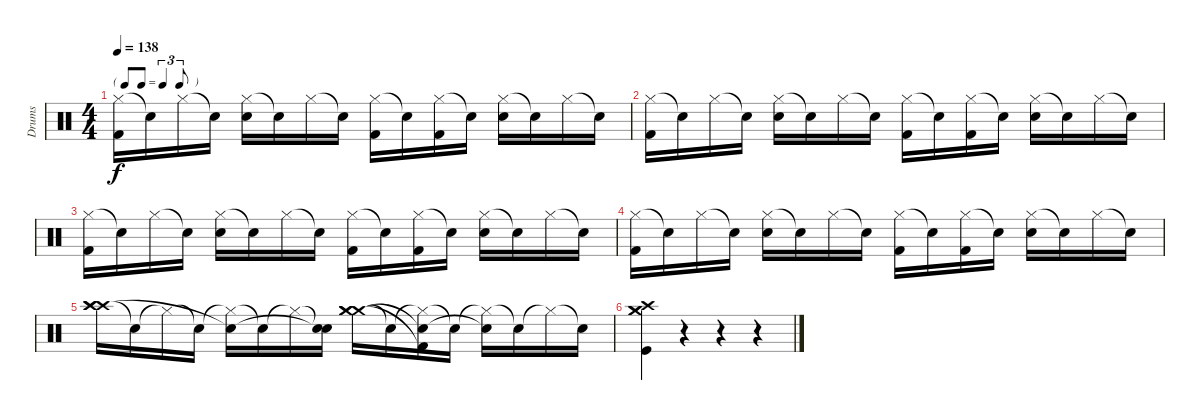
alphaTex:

\track ("Drums" "Drums") {instrument percussion}
\staff {score}
\articulation defaults
\ts (4 4)
\tf triplet8th
\tempo 138
\clef neutral
\ks c
("Hi-Hat (closed)" "Kick (hit) 2").16{dy f} "Snare (hit)"{t}.16 "Hi-Hat (closed)".16 "Snare (hit)"{t}.16 ("Hi-Hat (closed)" "Snare (hit) 2").16 "Snare (hit)"{t}.16 "Hi-Hat (closed)".16 "Snare (hit)"{t}.16 ("Hi-Hat (closed)" "Kick (hit) 2").16 "Snare (hit)"{t}.16 ("Hi-Hat (closed)" "Kick (hit) 2").16 "Snare (hit)"{t}.16 ("Hi-Hat (closed)" "Snare (hit) 2").16 "Snare (hit)"{t}.16 "Hi-Hat (closed)".16 "Snare (hit)"{t}.16 |
("Hi-Hat (closed)" "Kick (hit) 2").16 "Snare (hit)"{t}.16 "Hi-Hat (closed)".16 "Snare (hit)"{t}.16 ("Hi-Hat (closed)" "Snare (hit) 2").16 "Snare (hit)"{t}.16 "Hi-Hat (closed)".16 "Snare (hit)"{t}.16 ("Hi-Hat (closed)" "Kick (hit) 2").16 "Snare (hit)"{t}.16 ("Hi-Hat (closed)" "Kick (hit) 2").16 "Snare (hit)"{t}.16 ("Hi-Hat (closed)" "Snare (hit) 2").16 "Snare (hit)"{t}.16 "Hi-Hat (closed)".16 "Snare (hit)"{t}.16 |
("Hi-Hat (closed)" "Kick (hit) 2").16 "Snare (hit)"{t}.16 "Hi-Hat (closed)".16 "Snare (hit)"{t}.16 ("Hi-Hat (closed)" "Snare (hit) 2").16 "Snare (hit)"{t}.16 "Hi-Hat (closed)".16 "Snare (hit)"{t}.16 ("Hi-Hat (closed)" "Kick (hit) 2").16 "Snare (hit)"{t}.16 ("Hi-Hat (closed)" "Kick (hit) 2").16 "Snare (hit)"{t}.16 ("Hi-Hat (closed)" "Snare (hit) 2").16 "Snare (hit)"{t}.16 "Hi-Hat (closed)".16 "Snare (hit)"{t}.16 |
("Hi-Hat (closed)" "Kick (hit) 2").16 "Snare (hit)"{t}.16 "Hi-Hat (closed)".16 "Snare (hit)"{t}.16 ("Hi-Hat (closed)" "Snare (hit) 2").16 "Snare (hit)"{t}.16 "Hi-Hat (closed)".16 "Snare (hit)"{t}.16 ("Hi-Hat (closed)" "Kick (hit) 2").16 "Snare (hit)"{t}.16 ("Hi-Hat (closed)" "Kick (hit) 2").16 "Snare (hit)"{t}.16 ("Hi-Hat (closed)" "Snare (hit) 2").16 "Snare (hit)"{t}.16 "Hi-Hat (closed)".16 "Snare (hit)"{t}.16 |
("Crash high (hit)" "Crash high (hit)" "Crash high (hit)").16 "Snare (hit)"{t}.16 "Hi-Hat (closed)"{t}.16 "Snare (hit)"{t}.16 ("Hi-Hat (closed)"{t} "Snare (hit) 2"{t}).16 "Snare (hit)"{t}.16 "Hi-Hat (closed)"{t}.16 ("Snare (hit)"{t} "Snare (hit)"{t}).16 ("Crash medium (hit)" "Crash medium (hit)" "Crash medium (hit)").16 "Snare (hit)"{t}.16 ("Hi-Hat (closed)"{t} "Snare (hit)"{t} "Kick (hit) 2"{t}).16 "Snare (hit)"{t}.16 ("Hi-Hat (closed)"{t} "Snare (hit) 2"{t}).16 "Snare (hit)"{t}.16 "Hi-Hat (closed)"{t}.16 "Snare (hit)"{t}.16 |
("Kick (hit)" "Crash high (hit)" "Crash medium (hit)" "Crash medium (hit)").4 r.4 r.4 r.4
